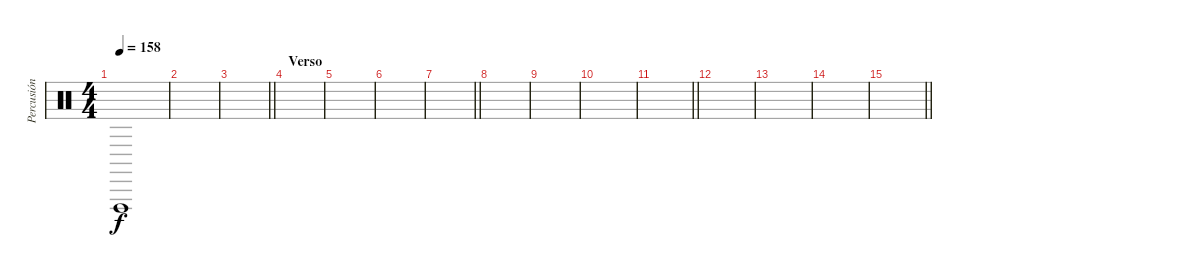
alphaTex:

\track ("Percusión" "Percusión") {instrument percussion}
\staff {score}
\articulation defaults
\ts (4 4)
\tempo 158
\clef neutral
\ks c "Vibraslap (hit)".1{dy f}
|
|
\barLineRight lightlight
|
\section ("" "Verso")
|
|
|
\barLineRight lightlight
|
|
|
|
\barLineRight lightlight
|
|
|
|
\barLineRight lightlight
